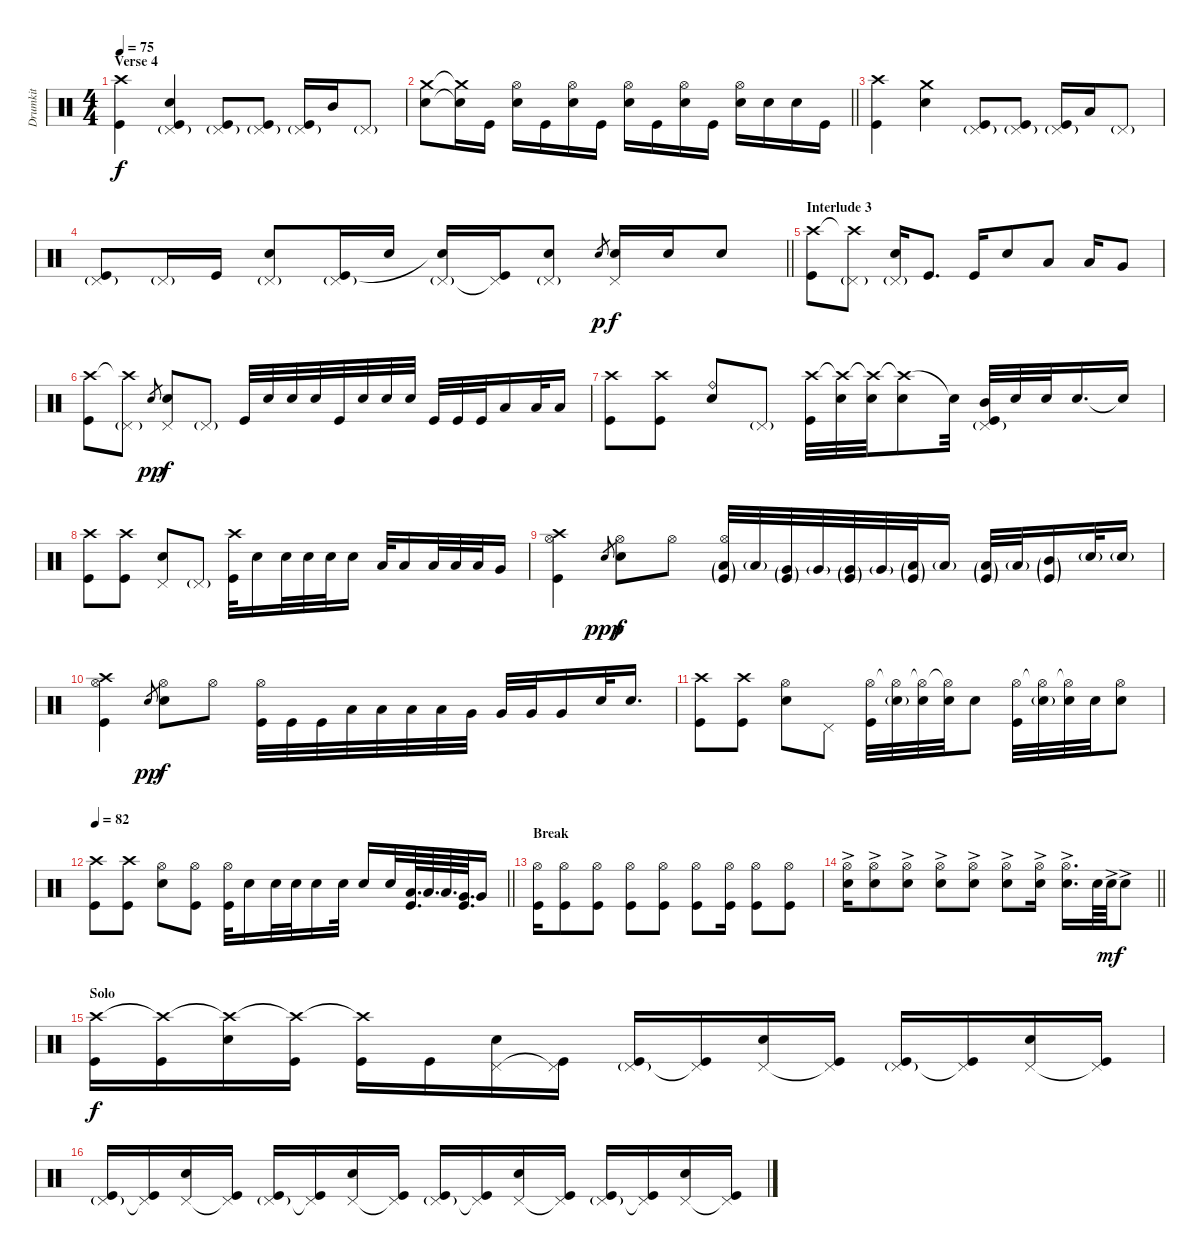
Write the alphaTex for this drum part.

\track ("Drumkit" "Drumkit") {instrument percussion}
\staff {score}
\articulation defaults
\ts (4 4)
\section ("" "Verse 4")
\tempo 75
\clef neutral
\ks c
("Crash high (hit)" "Kick (hit)").4{dy f} ("Pedal Hi-Hat (hit)"{g} "Snare (hit) 2" "Kick (hit)").4 ("Pedal Hi-Hat (hit)"{g} "Kick (hit)").8 ("Pedal Hi-Hat (hit)"{g} "Kick (hit)").8 ("Pedal Hi-Hat (hit)"{g} "Kick (hit)").16 "Mid Tom (hit)".16 "Pedal Hi-Hat (hit)"{g}.8 |
\barLineRight lightlight
("Crash medium (hit)" "Snare (hit) 2").8 ("Crash medium (hit)"{t} "Snare (hit) 2"{t}).16 "Kick (hit)".16 ("Hi-Hat (open)" "Snare (hit) 2").16 "Kick (hit)".16 ("Hi-Hat (open)" "Snare (hit) 2").16 "Kick (hit)".16 ("Hi-Hat (open)" "Snare (hit) 2").16 "Kick (hit)".16 ("Hi-Hat (open)" "Snare (hit) 2").16 "Kick (hit)".16 ("Hi-Hat (open)" "Snare (hit) 2").16 "Snare (hit) 2".16 "Snare (hit) 2".16 "Kick (hit)".16 |
("Crash high (hit)" "Kick (hit)").4 ("Crash medium (hit)" "Snare (hit) 2").4 ("Pedal Hi-Hat (hit)"{g} "Kick (hit)").8 ("Pedal Hi-Hat (hit)"{g} "Kick (hit)").8 ("Pedal Hi-Hat (hit)"{g} "Kick (hit)").16 "Low Tom (hit)".16 "Pedal Hi-Hat (hit)"{g}.8 |
\barLineRight lightlight
("Pedal Hi-Hat (hit)"{g} "Kick (hit)").8 "Pedal Hi-Hat (hit)"{g}.16 "Kick (hit)".16 ("Pedal Hi-Hat (hit)"{g} "Snare (hit) 2").8 ("Pedal Hi-Hat (hit)"{g} "Kick (hit)").16 "Snare (hit) 2".16 ("Pedal Hi-Hat (hit)"{g} "Snare (hit) 2"{t}).16 ("Pedal Hi-Hat (hit)"{t} "Kick (hit)").16 ("Pedal Hi-Hat (hit)"{g} "Snare (hit) 2").8 "Snare (hit)".8{gr dy p} ("Pedal Hi-Hat (hit)" "Snare (hit) 2").16{dy f} "Snare (hit) 2".16 "Snare (hit) 2".8 |
\section ("" "Interlude 3")
("Crash high (hit)" "Kick (hit)").8 ("Crash high (hit)"{t} "Pedal Hi-Hat (hit)"{g}).8 ("Pedal Hi-Hat (hit)"{g} "Snare (hit) 2").16 "Kick (hit)".8{d} "Kick (hit)".16 "Snare (hit) 2".8 "Low Tom (hit)".8 "Low Tom (hit)".16 "Very Low Tom (hit)".8 |
("Crash high (hit)" "Kick (hit)").8 ("Crash high (hit)"{t} "Pedal Hi-Hat (hit)"{g}).8 "Snare (hit)".8{gr dy pp} ("Pedal Hi-Hat (hit)" "Snare (hit) 2").8{dy f} "Pedal Hi-Hat (hit)"{g}.8 "Kick (hit)".32 "Snare (hit) 2".32 "Snare (hit) 2".32 "Snare (hit) 2".32 "Kick (hit)".32 "Snare (hit) 2".32 "Snare (hit) 2".32 "Snare (hit) 2".32 "Kick (hit)".32 "Kick (hit)".32 "Kick (hit)".32 "Low Tom (hit)".16 "Low Tom (hit)".32 "Low Tom (hit)".16 |
("Crash high (hit)" "Kick (hit)").8 ("Crash high (hit)" "Kick (hit)").8 ("Ride (bell)" "Snare (hit) 2").8 "Pedal Hi-Hat (hit)"{g}.8 ("Crash high (hit)" "Kick (hit)").32 ("Crash high (hit)"{t} "Snare (hit) 2").32 ("Crash high (hit)"{t} "Snare (hit) 2").32 ("Crash high (hit)"{t} "Snare (hit) 2").8 "Snare (hit) 2"{t}.32 ("Pedal Hi-Hat (hit)"{g} "Mid Tom (hit)" "Kick (hit)").32 "Snare (hit) 2".32 "Snare (hit) 2".32 "Snare (hit) 2".16{d} "Snare (hit) 2"{t}.16 |
("Crash high (hit)" "Kick (hit)").8 ("Crash high (hit)" "Kick (hit)").8 ("Pedal Hi-Hat (hit)" "Snare (hit) 2").8 "Pedal Hi-Hat (hit)"{g}.8 ("Crash high (hit)" "Kick (hit)").32 "Snare (hit) 2".16 "Snare (hit) 2".32 "Snare (hit) 2".32 "Snare (hit) 2".32 "Snare (hit) 2".16 "Low Tom (hit)".32 "Low Tom (hit)".16 "Low Tom (hit)".32 "Low Tom (hit)".32 "Low Tom (hit)".32 "Very Low Tom (hit)".16 |
("Crash high (hit)" "Hi-Hat (open)" "Kick (hit)").4 "Snare (hit)".8{gr dy ppp} ("Hi-Hat (open)" "Snare (hit) 2").8{dy f} "Hi-Hat (open)".8 ("Hi-Hat (open)" "Low Floor Tom (hit)"{g} "Kick (hit)"{g}).32 "Low Floor Tom (hit)"{g}.32 ("Very Low Tom (hit)"{g} "Kick (hit)"{g}).32 "Very Low Tom (hit)"{g}.32 ("Very Low Tom (hit)"{g} "Kick (hit)"{g}).32 "Very Low Tom (hit)"{g}.32 ("Low Tom (hit)"{g} "Kick (hit)"{g}).32 "Low Tom (hit)"{g}.16 ("Low Tom (hit)"{g} "Kick (hit)"{g}).32 "Low Tom (hit)"{g}.32 ("Mid Tom (hit)"{g} "Kick (hit)"{g}).16 "Snare (hit) 2"{g}.32 "Snare (hit) 2"{g}.16 |
("Crash high (hit)" "Hi-Hat (open)" "Kick (hit)").4 "Snare (hit)".8{gr dy pp} ("Hi-Hat (open)" "Snare (hit) 2").8{dy f} "Hi-Hat (open)".8 ("Hi-Hat (open)" "Kick (hit)").32 "Kick (hit)".32 "Kick (hit)".32 "Low Tom (hit)".32 "Low Tom (hit)".32 "Low Tom (hit)".32 "Low Tom (hit)".32 "Very Low Tom (hit)".32 "Very Low Tom (hit)".32 "Very Low Tom (hit)".32 "Very Low Tom (hit)".16 "Snare (hit) 2".32 "Snare (hit) 2".16{d} |
("Crash high (hit)" "Kick (hit)").8 ("Crash high (hit)" "Kick (hit)").8 ("Hi-Hat (open)" "Snare (hit) 2").8 "Pedal Hi-Hat (hit)".8 ("Hi-Hat (open)" "Kick (hit)").32 ("Hi-Hat (open)"{t} "Snare (hit) 2"{g}).32 ("Hi-Hat (open)"{t} "Snare (hit) 2").32 ("Hi-Hat (open)"{t} "Snare (hit) 2").32 "Snare (hit) 2".8 ("Hi-Hat (open)" "Kick (hit)").32 ("Hi-Hat (open)"{t} "Snare (hit) 2"{g}).32 ("Hi-Hat (open)"{t} "Snare (hit) 2").32 "Snare (hit) 2".32 ("Hi-Hat (open)" "Snare (hit) 2").8 |
\tempo 82
\barLineRight lightlight
("Crash high (hit)" "Kick (hit)").8 ("Crash high (hit)" "Kick (hit)").8 ("Hi-Hat (open)" "Snare (hit) 2").8 ("Hi-Hat (open)" "Kick (hit)").8 ("Hi-Hat (open)" "Kick (hit)").32 "Snare (hit) 2".16 "Snare (hit) 2".32 "Snare (hit) 2".32 "Snare (hit) 2".16 "Snare (hit) 2".32 "Snare (hit) 2".16 "Snare (hit) 2".32 ("Low Tom (hit)" "Kick (hit)").64{d} "Low Tom (hit)".64{d} "Low Tom (hit)".64{d} ("Very Low Tom (hit)" "Kick (hit)").64{d} "Very Low Tom (hit)".16 |
\section ("" "Break")
("Hi-Hat (open)" "Kick (hit)").16 ("Hi-Hat (open)" "Kick (hit)").8 ("Hi-Hat (open)" "Kick (hit)").8 ("Hi-Hat (open)" "Kick (hit)").8 ("Hi-Hat (open)" "Kick (hit)").8 ("Hi-Hat (open)" "Kick (hit)").8 ("Hi-Hat (open)" "Kick (hit)").16 ("Hi-Hat (open)" "Kick (hit)").8 ("Hi-Hat (open)" "Kick (hit)").8 |
\barLineRight lightlight
("Hi-Hat (open)" "Snare (hit) 2"{ac}).16 ("Hi-Hat (open)" "Snare (hit) 2"{ac}).8 ("Hi-Hat (open)" "Snare (hit) 2"{ac}).8 ("Hi-Hat (open)" "Snare (hit) 2"{ac}).8 ("Hi-Hat (open)" "Snare (hit) 2"{ac}).8 ("Hi-Hat (open)" "Snare (hit) 2"{ac}).8 ("Hi-Hat (open)" "Snare (hit) 2"{ac}).16 ("Hi-Hat (open)" "Snare (hit) 2"{ac}).16{d} "Snare (hit) 2".64 "Snare (hit) 2"{ac}.64{dy mf} "Snare (hit) 2"{ac}.8 |
\section ("" "Solo")
("Crash high (hit)" "Kick (hit)").16{dy f} ("Crash high (hit)"{t} "Kick (hit)").16 ("Crash high (hit)"{t} "Snare (hit) 2").16 ("Crash high (hit)"{t} "Kick (hit)").16 ("Crash high (hit)"{t} "Kick (hit)").16 "Kick (hit)".16 ("Pedal Hi-Hat (hit)" "Snare (hit) 2").16 ("Pedal Hi-Hat (hit)"{t} "Kick (hit)").16 ("Pedal Hi-Hat (hit)"{g} "Kick (hit)").16 ("Pedal Hi-Hat (hit)"{t} "Kick (hit)").16 ("Pedal Hi-Hat (hit)" "Snare (hit) 2").16 ("Pedal Hi-Hat (hit)"{t} "Kick (hit)").16 ("Pedal Hi-Hat (hit)"{g} "Kick (hit)").16 ("Pedal Hi-Hat (hit)"{t} "Kick (hit)").16 ("Pedal Hi-Hat (hit)" "Snare (hit) 2").16 ("Pedal Hi-Hat (hit)"{t} "Kick (hit)").16 |
("Pedal Hi-Hat (hit)"{g} "Kick (hit)").16 ("Pedal Hi-Hat (hit)"{t} "Kick (hit)").16 ("Pedal Hi-Hat (hit)" "Snare (hit) 2").16 ("Pedal Hi-Hat (hit)"{t} "Kick (hit)").16 ("Pedal Hi-Hat (hit)"{g} "Kick (hit)").16 ("Pedal Hi-Hat (hit)"{t} "Kick (hit)").16 ("Pedal Hi-Hat (hit)" "Snare (hit) 2").16 ("Pedal Hi-Hat (hit)"{t} "Kick (hit)").16 ("Pedal Hi-Hat (hit)"{g} "Kick (hit)").16 ("Pedal Hi-Hat (hit)"{t} "Kick (hit)").16 ("Pedal Hi-Hat (hit)" "Snare (hit) 2").16 ("Pedal Hi-Hat (hit)"{t} "Kick (hit)").16 ("Pedal Hi-Hat (hit)"{g} "Kick (hit)").16 ("Pedal Hi-Hat (hit)"{t} "Kick (hit)").16 ("Pedal Hi-Hat (hit)" "Snare (hit) 2").16 ("Pedal Hi-Hat (hit)"{t} "Kick (hit)").16
